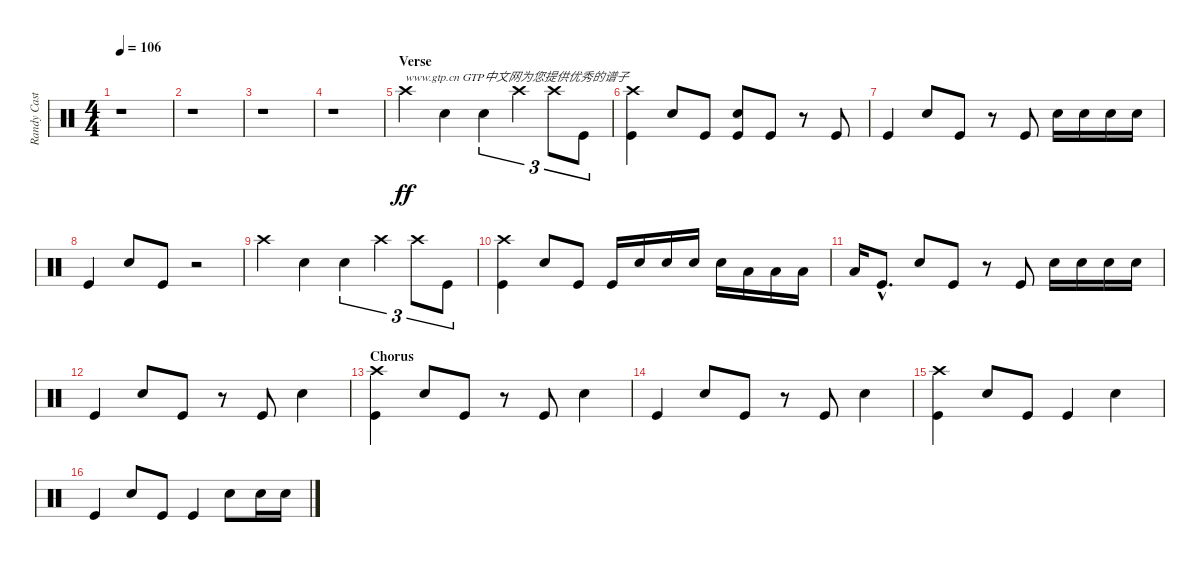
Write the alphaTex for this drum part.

\track ("Randy Castillo" "Randy Cast") {instrument percussion}
\staff {score}
\articulation defaults
\ts (4 4)
\tempo 106
\clef neutral
\ks c
r.1{dy ff} |
r.1 |
r.1 |
r.1 |
\section ("" "Verse")
"Crash high (hit)".4{txt "www.gtp.cn GTP中文网为您提供优秀的谱子"} "Snare (hit) 2".4 "Snare (hit) 2".4{tu (3 2)} "Crash high (hit)".4{tu (3 2)} "Crash high (hit)".8{tu (3 2)} "Kick (hit)".8{tu (3 2)} |
("Crash high (hit)" "Kick (hit)").4 "Snare (hit) 2".8 "Kick (hit)".8 ("Snare (hit) 2" "Kick (hit)").8 "Kick (hit)".8 r.8 "Kick (hit)".8 |
"Kick (hit)".4 "Snare (hit) 2".8 "Kick (hit)".8 r.8 "Kick (hit)".8 "Snare (hit) 2".16 "Snare (hit) 2".16 "Snare (hit) 2".16 "Snare (hit) 2".16 |
"Kick (hit)".4 "Snare (hit) 2".8 "Kick (hit)".8 r.2 |
"Crash high (hit)".4 "Snare (hit) 2".4 "Snare (hit) 2".4{tu (3 2)} "Crash high (hit)".4{tu (3 2)} "Crash high (hit)".8{tu (3 2)} "Kick (hit)".8{tu (3 2)} |
("Crash high (hit)" "Kick (hit)").4 "Snare (hit) 2".8 "Kick (hit)".8 "Kick (hit)".16 "Snare (hit) 2".16 "Snare (hit) 2".16 "Snare (hit) 2".16 "Snare (hit) 2".16 "Low Tom (hit)".16 "Low Tom (hit)".16 "Low Tom (hit)".16 |
"Low Tom (hit)".16 "Kick (hit)"{hac}.8{d} "Snare (hit) 2".8 "Kick (hit)".8 r.8 "Kick (hit)".8 "Snare (hit) 2".16 "Snare (hit) 2".16 "Snare (hit) 2".16 "Snare (hit) 2".16 |
"Kick (hit)".4 "Snare (hit) 2".8 "Kick (hit)".8 r.8 "Kick (hit)".8 "Snare (hit) 2".4 |
\section ("" "Chorus")
("Crash high (hit)" "Kick (hit)").4 "Snare (hit) 2".8 "Kick (hit)".8 r.8 "Kick (hit)".8 "Snare (hit) 2".4 |
"Kick (hit)".4 "Snare (hit) 2".8 "Kick (hit)".8 r.8 "Kick (hit)".8 "Snare (hit) 2".4 |
("Crash high (hit)" "Kick (hit)").4 "Snare (hit) 2".8 "Kick (hit)".8 "Kick (hit)".4 "Snare (hit) 2".4 |
"Kick (hit)".4 "Snare (hit) 2".8 "Kick (hit)".8 "Kick (hit)".4 "Snare (hit) 2".8 "Snare (hit) 2".16 "Snare (hit) 2".16
